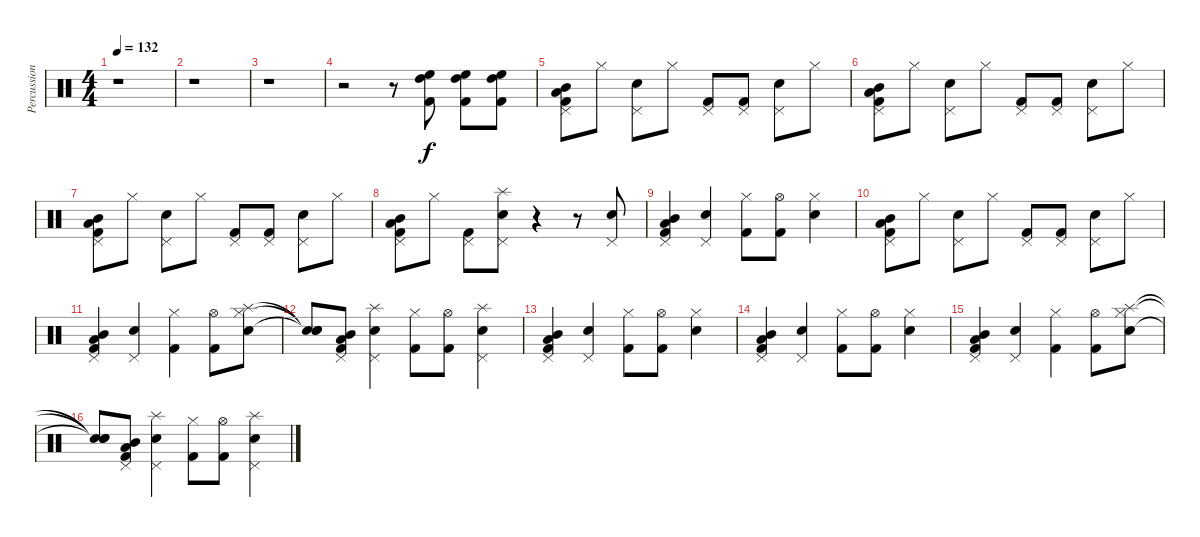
\track ("Percussions" "Percussion") {instrument percussion}
\staff {score}
\articulation defaults
\ts (4 4)
\tempo 132
\clef neutral
\ks c
r.1{dy f} |
r.1 |
r.1 |
r.2 r.8 ("High Floor Tom (hit)" "High Tom (hit)" "Kick (hit) 2").8 ("High Floor Tom (hit)" "High Tom (hit)" "Kick (hit) 2").8 ("High Floor Tom (hit)" "High Tom (hit)" "Kick (hit) 2").8 |
("Pedal Hi-Hat (hit)" "Mid Tom (hit)" "Low Tom (hit)" "Kick (hit) 2").8 "Hi-Hat (closed)".8 ("Pedal Hi-Hat (hit)" "Snare (hit) 2").8 "Hi-Hat (closed)".8 ("Pedal Hi-Hat (hit)" "Kick (hit) 2").8 ("Pedal Hi-Hat (hit)" "Kick (hit) 2").8 ("Pedal Hi-Hat (hit)" "Snare (hit) 2").8 "Hi-Hat (closed)".8 |
("Pedal Hi-Hat (hit)" "Mid Tom (hit)" "Low Tom (hit)" "Kick (hit) 2").8 "Hi-Hat (closed)".8 ("Pedal Hi-Hat (hit)" "Snare (hit) 2").8 "Hi-Hat (closed)".8 ("Pedal Hi-Hat (hit)" "Kick (hit) 2").8 ("Pedal Hi-Hat (hit)" "Kick (hit) 2").8 ("Pedal Hi-Hat (hit)" "Snare (hit) 2").8 "Hi-Hat (closed)".8 |
("Pedal Hi-Hat (hit)" "Mid Tom (hit)" "Low Tom (hit)" "Kick (hit) 2").8 "Hi-Hat (closed)".8 ("Pedal Hi-Hat (hit)" "Snare (hit) 2").8 "Hi-Hat (closed)".8 ("Pedal Hi-Hat (hit)" "Kick (hit) 2").8 ("Pedal Hi-Hat (hit)" "Kick (hit) 2").8 ("Pedal Hi-Hat (hit)" "Snare (hit) 2").8 "Hi-Hat (closed)".8 |
("Pedal Hi-Hat (hit)" "Mid Tom (hit)" "Low Tom (hit)" "Kick (hit) 2").8 "Hi-Hat (closed)".8 ("Pedal Hi-Hat (hit)" "Kick (hit) 2").8 ("Pedal Hi-Hat (hit)" "Splash (hit)" "Snare (hit) 2").8 r.4 r.8 ("Pedal Hi-Hat (hit)" "Snare (hit) 2").8 |
("Pedal Hi-Hat (hit)" "Mid Tom (hit)" "Low Tom (hit)" "Kick (hit) 2").4 ("Pedal Hi-Hat (hit)" "Snare (hit) 2").4 ("Hi-Hat (closed)" "Kick (hit) 2").8 ("Hi-Hat (open)" "Kick (hit) 2").8 ("Hi-Hat (closed)" "Snare (hit) 2").4 |
("Pedal Hi-Hat (hit)" "Mid Tom (hit)" "Low Tom (hit)" "Kick (hit) 2").8 "Hi-Hat (closed)".8 ("Pedal Hi-Hat (hit)" "Snare (hit) 2").8 "Hi-Hat (closed)".8 ("Pedal Hi-Hat (hit)" "Kick (hit) 2").8 ("Pedal Hi-Hat (hit)" "Kick (hit) 2").8 ("Pedal Hi-Hat (hit)" "Snare (hit) 2").8 "Hi-Hat (closed)".8 |
("Pedal Hi-Hat (hit)" "Mid Tom (hit)" "Low Tom (hit)" "Kick (hit) 2").4 ("Pedal Hi-Hat (hit)" "Snare (hit) 2").4 ("Hi-Hat (closed)" "Kick (hit) 2").4 ("Hi-Hat (open)" "Kick (hit) 2").8 ("Hi-Hat (closed)" "Splash (hit)" "Snare (hit) 2").8 |
("Snare (hit)"{t} "Snare (hit)"{t} "Snare (hit)"{t}).8 ("Pedal Hi-Hat (hit)" "Mid Tom (hit)" "Low Tom (hit)" "Kick (hit) 2").8 ("Pedal Hi-Hat (hit)" "Splash (hit)" "Snare (hit) 2").4 ("Hi-Hat (closed)" "Kick (hit) 2").8 ("Hi-Hat (open)" "Kick (hit) 2").8 ("Pedal Hi-Hat (hit)" "Splash (hit)" "Snare (hit) 2").4 |
("Pedal Hi-Hat (hit)" "Mid Tom (hit)" "Low Tom (hit)" "Kick (hit) 2").4 ("Pedal Hi-Hat (hit)" "Snare (hit) 2").4 ("Hi-Hat (closed)" "Kick (hit) 2").8 ("Hi-Hat (open)" "Kick (hit) 2").8 ("Hi-Hat (closed)" "Snare (hit) 2").4 |
("Pedal Hi-Hat (hit)" "Mid Tom (hit)" "Low Tom (hit)" "Kick (hit) 2").4 ("Pedal Hi-Hat (hit)" "Snare (hit) 2").4 ("Hi-Hat (closed)" "Kick (hit) 2").8 ("Hi-Hat (open)" "Kick (hit) 2").8 ("Hi-Hat (closed)" "Snare (hit) 2").4 |
("Pedal Hi-Hat (hit)" "Mid Tom (hit)" "Low Tom (hit)" "Kick (hit) 2").4 ("Pedal Hi-Hat (hit)" "Snare (hit) 2").4 ("Hi-Hat (closed)" "Kick (hit) 2").4 ("Hi-Hat (open)" "Kick (hit) 2").8 ("Hi-Hat (closed)" "Splash (hit)" "Snare (hit) 2").8 |
("Snare (hit)"{t} "Snare (hit)"{t} "Snare (hit)"{t}).8 ("Pedal Hi-Hat (hit)" "Mid Tom (hit)" "Low Tom (hit)" "Kick (hit) 2").8 ("Pedal Hi-Hat (hit)" "Splash (hit)" "Snare (hit) 2").4 ("Hi-Hat (closed)" "Kick (hit) 2").8 ("Hi-Hat (open)" "Kick (hit) 2").8 ("Pedal Hi-Hat (hit)" "Splash (hit)" "Snare (hit) 2").4
